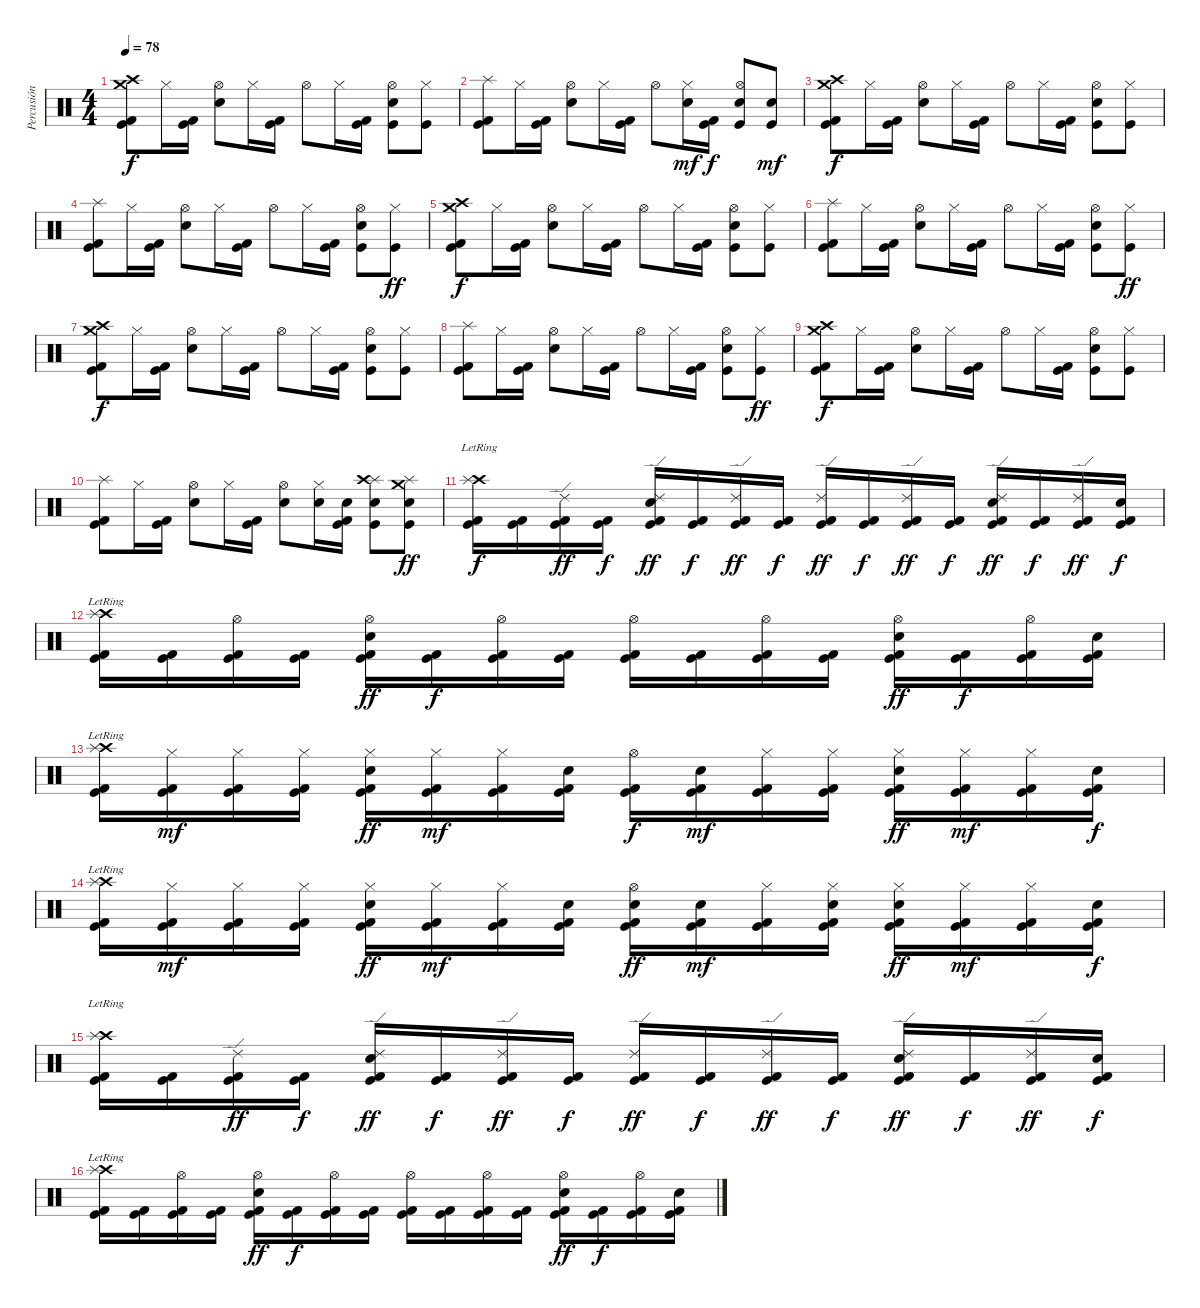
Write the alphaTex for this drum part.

\track ("Percusión" "Percusión") {instrument percussion}
\staff {score}
\articulation defaults
\ts (4 4)
\tempo 78
\clef neutral
\ks c
("Crash high (hit)" "Crash medium (hit)" "Kick (hit) 2" "Kick (hit)").8{dy f} "Hi-Hat (closed)".16 ("Kick (hit) 2" "Kick (hit)").16 ("Hi-Hat (open)" "Electric Snare (hit)").8 "Hi-Hat (closed)".16 ("Kick (hit) 2" "Kick (hit)").16 "Hi-Hat (open)".8 "Hi-Hat (closed)".16 ("Kick (hit)" "Kick (hit) 2").16 ("Hi-Hat (open)" "Electric Snare (hit)" "Kick (hit)").8 ("Hi-Hat (closed)" "Kick (hit)").8 |
("Splash (hit)" "Kick (hit) 2" "Kick (hit)").8 "Hi-Hat (closed)".16 ("Kick (hit) 2" "Kick (hit)").16 ("Hi-Hat (open)" "Electric Snare (hit)").8 "Hi-Hat (closed)".16 ("Kick (hit) 2" "Kick (hit)").16 "Hi-Hat (open)".8 ("Hi-Hat (closed)" "Electric Snare (hit)").16{dy mf} ("Kick (hit)" "Kick (hit) 2").16{dy f} ("Hi-Hat (open)" "Electric Snare (hit)" "Kick (hit)").8 ("Electric Snare (hit)" "Kick (hit)").8{dy mf} |
("Crash high (hit)" "Crash medium (hit)" "Kick (hit) 2" "Kick (hit)").8{dy f} "Hi-Hat (closed)".16 ("Kick (hit) 2" "Kick (hit)").16 ("Hi-Hat (open)" "Electric Snare (hit)").8 "Hi-Hat (closed)".16 ("Kick (hit) 2" "Kick (hit)").16 "Hi-Hat (open)".8 "Hi-Hat (closed)".16 ("Kick (hit)" "Kick (hit) 2").16 ("Hi-Hat (open)" "Electric Snare (hit)" "Kick (hit)").8 ("Hi-Hat (closed)" "Kick (hit)").8 |
("Splash (hit)" "Kick (hit) 2" "Kick (hit)").8 "Hi-Hat (closed)".16 ("Kick (hit) 2" "Kick (hit)").16 ("Hi-Hat (open)" "Electric Snare (hit)").8 "Hi-Hat (closed)".16 ("Kick (hit) 2" "Kick (hit)").16 "Hi-Hat (open)".8 "Hi-Hat (closed)".16 ("Kick (hit)" "Kick (hit) 2").16 ("Hi-Hat (open)" "Electric Snare (hit)" "Kick (hit)").8 ("Hi-Hat (closed)" "Kick (hit)").8{dy ff} |
("Crash high (hit)" "Crash medium (hit)" "Kick (hit) 2" "Kick (hit)").8{dy f} "Hi-Hat (closed)".16 ("Kick (hit) 2" "Kick (hit)").16 ("Hi-Hat (open)" "Electric Snare (hit)").8 "Hi-Hat (closed)".16 ("Kick (hit) 2" "Kick (hit)").16 "Hi-Hat (open)".8 "Hi-Hat (closed)".16 ("Kick (hit)" "Kick (hit) 2").16 ("Hi-Hat (open)" "Electric Snare (hit)" "Kick (hit)").8 ("Hi-Hat (closed)" "Kick (hit)").8 |
("Splash (hit)" "Kick (hit) 2" "Kick (hit)").8 "Hi-Hat (closed)".16 ("Kick (hit) 2" "Kick (hit)").16 ("Hi-Hat (open)" "Electric Snare (hit)").8 "Hi-Hat (closed)".16 ("Kick (hit) 2" "Kick (hit)").16 "Hi-Hat (open)".8 "Hi-Hat (closed)".16 ("Kick (hit)" "Kick (hit) 2").16 ("Hi-Hat (open)" "Electric Snare (hit)" "Kick (hit)").8 ("Hi-Hat (closed)" "Kick (hit)").8{dy ff} |
("Crash high (hit)" "Crash medium (hit)" "Kick (hit) 2" "Kick (hit)").8{dy f} "Hi-Hat (closed)".16 ("Kick (hit) 2" "Kick (hit)").16 ("Hi-Hat (open)" "Electric Snare (hit)").8 "Hi-Hat (closed)".16 ("Kick (hit) 2" "Kick (hit)").16 "Hi-Hat (open)".8 "Hi-Hat (closed)".16 ("Kick (hit)" "Kick (hit) 2").16 ("Hi-Hat (open)" "Electric Snare (hit)" "Kick (hit)").8 ("Hi-Hat (closed)" "Kick (hit)").8 |
("Splash (hit)" "Kick (hit) 2" "Kick (hit)").8 "Hi-Hat (closed)".16 ("Kick (hit) 2" "Kick (hit)").16 ("Hi-Hat (open)" "Electric Snare (hit)").8 "Hi-Hat (closed)".16 ("Kick (hit) 2" "Kick (hit)").16 "Hi-Hat (open)".8 "Hi-Hat (closed)".16 ("Kick (hit)" "Kick (hit) 2").16 ("Hi-Hat (open)" "Electric Snare (hit)" "Kick (hit)").8 ("Hi-Hat (closed)" "Kick (hit)").8{dy ff} |
("Crash high (hit)" "Crash medium (hit)" "Kick (hit) 2" "Kick (hit)").8{dy f} "Hi-Hat (closed)".16 ("Kick (hit) 2" "Kick (hit)").16 ("Hi-Hat (open)" "Electric Snare (hit)").8 "Hi-Hat (closed)".16 ("Kick (hit) 2" "Kick (hit)").16 "Hi-Hat (open)".8 "Hi-Hat (closed)".16 ("Kick (hit)" "Kick (hit) 2").16 ("Hi-Hat (open)" "Electric Snare (hit)" "Kick (hit)").8 ("Hi-Hat (closed)" "Kick (hit)").8 |
("Splash (hit)" "Kick (hit) 2" "Kick (hit)").8 "Hi-Hat (closed)".16 ("Kick (hit) 2" "Kick (hit)").16 ("Hi-Hat (open)" "Electric Snare (hit)").8 "Hi-Hat (closed)".16 ("Kick (hit) 2" "Kick (hit)").16 ("Hi-Hat (open)" "Electric Snare (hit)").8 ("Hi-Hat (closed)" "Electric Snare (hit)").16 ("Electric Snare (hit)" "Kick (hit)" "Kick (hit) 2").16 ("Splash (hit)" "Crash high (hit)" "Electric Snare (hit)" "Kick (hit)").8 ("Splash (hit)" "Crash medium (hit)" "Electric Snare (hit)" "Kick (hit)").8{dy ff} |
("Crash high (hit)"{lr} "Splash (hit)"{lr} "Kick (hit) 2" "Kick (hit)").16{dy f} ("Kick (hit) 2" "Kick (hit)").16 ("Ride (edge) 2" "Kick (hit) 2" "Kick (hit)").16{dy ff} ("Kick (hit) 2" "Kick (hit)").16{dy f} ("Ride (edge) 2" "Electric Snare (hit)" "Kick (hit) 2" "Kick (hit)").16{dy ff} ("Kick (hit) 2" "Kick (hit)").16{dy f} ("Ride (edge) 2" "Kick (hit) 2" "Kick (hit)").16{dy ff} ("Kick (hit) 2" "Kick (hit)").16{dy f} ("Ride (edge) 2" "Kick (hit) 2" "Kick (hit)").16{dy ff} ("Kick (hit) 2" "Kick (hit)").16{dy f} ("Ride (edge) 2" "Kick (hit) 2" "Kick (hit)").16{dy ff} ("Kick (hit) 2" "Kick (hit)").16{dy f} ("Ride (edge) 2" "Electric Snare (hit)" "Kick (hit) 2" "Kick (hit)").16{dy ff} ("Kick (hit) 2" "Kick (hit)").16{dy f} ("Ride (edge) 2" "Kick (hit) 2" "Kick (hit)").16{dy ff} ("Electric Snare (hit)" "Kick (hit) 2" "Kick (hit)").16{dy f} |
("Crash high (hit)"{lr} "Splash (hit)"{lr} "Kick (hit) 2" "Kick (hit)").16 ("Kick (hit) 2" "Kick (hit)").16 ("Hi-Hat (open)" "Kick (hit) 2" "Kick (hit)").16 ("Kick (hit) 2" "Kick (hit)").16 ("Hi-Hat (open)" "Electric Snare (hit)" "Kick (hit) 2" "Kick (hit)").16{dy ff} ("Kick (hit) 2" "Kick (hit)").16{dy f} ("Hi-Hat (open)" "Kick (hit) 2" "Kick (hit)").16 ("Kick (hit) 2" "Kick (hit)").16 ("Hi-Hat (open)" "Kick (hit) 2" "Kick (hit)").16 ("Kick (hit) 2" "Kick (hit)").16 ("Hi-Hat (open)" "Kick (hit) 2" "Kick (hit)").16 ("Kick (hit) 2" "Kick (hit)").16 ("Hi-Hat (open)" "Electric Snare (hit)" "Kick (hit) 2" "Kick (hit)").16{dy ff} ("Kick (hit) 2" "Kick (hit)").16{dy f} ("Hi-Hat (open)" "Kick (hit) 2" "Kick (hit)").16 ("Electric Snare (hit)" "Kick (hit) 2" "Kick (hit)").16 |
("Crash high (hit)"{lr} "Splash (hit)"{lr} "Kick (hit) 2" "Kick (hit)").16 ("Hi-Hat (closed)" "Kick (hit) 2" "Kick (hit)").16{dy mf} ("Hi-Hat (closed)" "Kick (hit) 2" "Kick (hit)").16 ("Hi-Hat (closed)" "Kick (hit) 2" "Kick (hit)").16 ("Hi-Hat (closed)" "Electric Snare (hit)" "Kick (hit) 2" "Kick (hit)").16{dy ff} ("Hi-Hat (closed)" "Kick (hit) 2" "Kick (hit)").16{dy mf} ("Hi-Hat (closed)" "Kick (hit) 2" "Kick (hit)").16 ("Snare (hit)" "Kick (hit) 2" "Kick (hit)").16 ("Hi-Hat (open)" "Kick (hit) 2" "Kick (hit)").16{dy f} ("Snare (hit)" "Kick (hit) 2" "Kick (hit)").16{dy mf} ("Hi-Hat (closed)" "Kick (hit) 2" "Kick (hit)").16 ("Hi-Hat (closed)" "Kick (hit) 2" "Kick (hit)").16 ("Hi-Hat (closed)" "Electric Snare (hit)" "Kick (hit) 2" "Kick (hit)").16{dy ff} ("Hi-Hat (closed)" "Kick (hit) 2" "Kick (hit)").16{dy mf} ("Hi-Hat (closed)" "Kick (hit) 2" "Kick (hit)").16 ("Electric Snare (hit)" "Kick (hit) 2" "Kick (hit)").16{dy f} |
("Crash high (hit)"{lr} "Splash (hit)"{lr} "Kick (hit) 2" "Kick (hit)").16 ("Hi-Hat (closed)" "Kick (hit) 2" "Kick (hit)").16{dy mf} ("Hi-Hat (closed)" "Kick (hit) 2" "Kick (hit)").16 ("Hi-Hat (closed)" "Kick (hit) 2" "Kick (hit)").16 ("Hi-Hat (closed)" "Electric Snare (hit)" "Kick (hit) 2" "Kick (hit)").16{dy ff} ("Hi-Hat (closed)" "Kick (hit) 2" "Kick (hit)").16{dy mf} ("Hi-Hat (closed)" "Kick (hit) 2" "Kick (hit)").16 ("Snare (hit)" "Kick (hit) 2" "Kick (hit)").16 ("Hi-Hat (open)" "Electric Snare (hit)" "Kick (hit) 2" "Kick (hit)").16{dy ff} ("Snare (hit)" "Kick (hit) 2" "Kick (hit)").16{dy mf} ("Hi-Hat (closed)" "Kick (hit) 2" "Kick (hit)").16 ("Hi-Hat (closed)" "Electric Snare (hit)" "Kick (hit) 2" "Kick (hit)").16 ("Hi-Hat (closed)" "Electric Snare (hit)" "Kick (hit) 2" "Kick (hit)").16{dy ff} ("Hi-Hat (closed)" "Kick (hit) 2" "Kick (hit)").16{dy mf} ("Hi-Hat (closed)" "Kick (hit) 2" "Kick (hit)").16 ("Electric Snare (hit)" "Kick (hit) 2" "Kick (hit)").16{dy f} |
("Crash high (hit)"{lr} "Splash (hit)"{lr} "Kick (hit) 2" "Kick (hit)").16 ("Kick (hit) 2" "Kick (hit)").16 ("Ride (edge) 2" "Kick (hit) 2" "Kick (hit)").16{dy ff} ("Kick (hit) 2" "Kick (hit)").16{dy f} ("Ride (edge) 2" "Electric Snare (hit)" "Kick (hit) 2" "Kick (hit)").16{dy ff} ("Kick (hit) 2" "Kick (hit)").16{dy f} ("Ride (edge) 2" "Kick (hit) 2" "Kick (hit)").16{dy ff} ("Kick (hit) 2" "Kick (hit)").16{dy f} ("Ride (edge) 2" "Kick (hit) 2" "Kick (hit)").16{dy ff} ("Kick (hit) 2" "Kick (hit)").16{dy f} ("Ride (edge) 2" "Kick (hit) 2" "Kick (hit)").16{dy ff} ("Kick (hit) 2" "Kick (hit)").16{dy f} ("Ride (edge) 2" "Electric Snare (hit)" "Kick (hit) 2" "Kick (hit)").16{dy ff} ("Kick (hit) 2" "Kick (hit)").16{dy f} ("Ride (edge) 2" "Kick (hit) 2" "Kick (hit)").16{dy ff} ("Electric Snare (hit)" "Kick (hit) 2" "Kick (hit)").16{dy f} |
("Crash high (hit)"{lr} "Splash (hit)"{lr} "Kick (hit) 2" "Kick (hit)").16 ("Kick (hit) 2" "Kick (hit)").16 ("Hi-Hat (open)" "Kick (hit) 2" "Kick (hit)").16 ("Kick (hit) 2" "Kick (hit)").16 ("Hi-Hat (open)" "Electric Snare (hit)" "Kick (hit) 2" "Kick (hit)").16{dy ff} ("Kick (hit) 2" "Kick (hit)").16{dy f} ("Hi-Hat (open)" "Kick (hit) 2" "Kick (hit)").16 ("Kick (hit) 2" "Kick (hit)").16 ("Hi-Hat (open)" "Kick (hit) 2" "Kick (hit)").16 ("Kick (hit) 2" "Kick (hit)").16 ("Hi-Hat (open)" "Kick (hit) 2" "Kick (hit)").16 ("Kick (hit) 2" "Kick (hit)").16 ("Hi-Hat (open)" "Electric Snare (hit)" "Kick (hit) 2" "Kick (hit)").16{dy ff} ("Kick (hit) 2" "Kick (hit)").16{dy f} ("Hi-Hat (open)" "Kick (hit) 2" "Kick (hit)").16 ("Electric Snare (hit)" "Kick (hit) 2" "Kick (hit)").16
